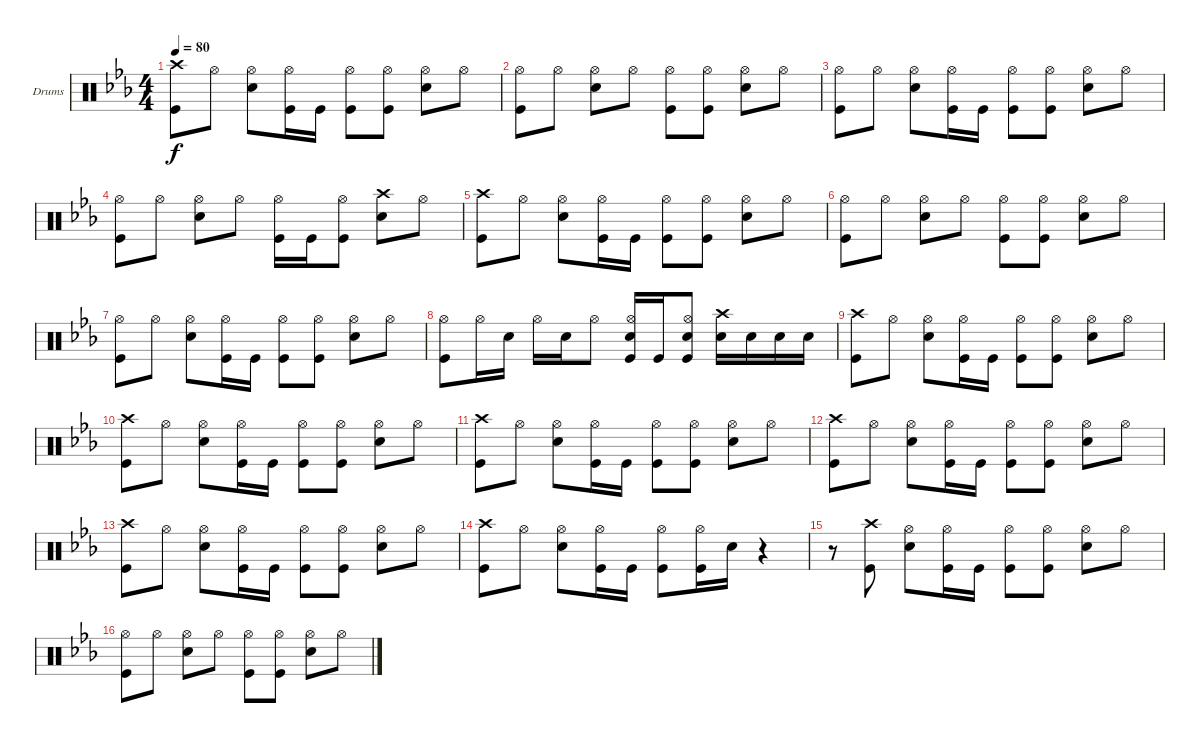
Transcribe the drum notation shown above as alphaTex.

\defaultSystemsLayout 4
\bracketExtendMode groupsimilarinstruments
\firstSystemTrackNameOrientation horizontal
\otherSystemsTrackNameOrientation horizontal
\track ("Drumkit" "Drums") {instrument percussion}
\staff {score}
\articulation defaults
\ts (4 4)
\tempo 80
\clef neutral
\ks cminor
("Crash high (hit)" "Kick (hit)").8{dy f} "Hi-Hat (open)".8 ("Hi-Hat (open)" "Snare (hit) 2").8 ("Hi-Hat (open)" "Kick (hit)").16 "Kick (hit)".16 ("Hi-Hat (open)" "Kick (hit)").8 ("Hi-Hat (open)" "Kick (hit)").8 ("Hi-Hat (open)" "Snare (hit) 2").8 "Hi-Hat (open)".8 |
("Kick (hit)" "Hi-Hat (open)").8 "Hi-Hat (open)".8 ("Hi-Hat (open)" "Snare (hit) 2").8 "Hi-Hat (open)".8 ("Hi-Hat (open)" "Kick (hit)").8 ("Hi-Hat (open)" "Kick (hit)").8 ("Hi-Hat (open)" "Snare (hit) 2").8 "Hi-Hat (open)".8 |
("Kick (hit)" "Hi-Hat (open)").8 "Hi-Hat (open)".8 ("Hi-Hat (open)" "Snare (hit) 2").8 ("Hi-Hat (open)" "Kick (hit)").16 "Kick (hit)".16 ("Hi-Hat (open)" "Kick (hit)").8 ("Hi-Hat (open)" "Kick (hit)").8 ("Hi-Hat (open)" "Snare (hit) 2").8 "Hi-Hat (open)".8 |
("Kick (hit)" "Hi-Hat (open)").8 "Hi-Hat (open)".8 ("Hi-Hat (open)" "Snare (hit) 2").8 "Hi-Hat (open)".8 ("Kick (hit)" "Hi-Hat (open)").16 "Kick (hit)".16 ("Hi-Hat (open)" "Kick (hit)").8 ("Snare (hit) 2" "Crash high (hit)").8 "Hi-Hat (open)".8 |
("Crash high (hit)" "Kick (hit)").8 "Hi-Hat (open)".8 ("Hi-Hat (open)" "Snare (hit) 2").8 ("Hi-Hat (open)" "Kick (hit)").16 "Kick (hit)".16 ("Hi-Hat (open)" "Kick (hit)").8 ("Hi-Hat (open)" "Kick (hit)").8 ("Hi-Hat (open)" "Snare (hit) 2").8 "Hi-Hat (open)".8 |
("Kick (hit)" "Hi-Hat (open)").8 "Hi-Hat (open)".8 ("Hi-Hat (open)" "Snare (hit) 2").8 "Hi-Hat (open)".8 ("Hi-Hat (open)" "Kick (hit)").8 ("Hi-Hat (open)" "Kick (hit)").8 ("Hi-Hat (open)" "Snare (hit) 2").8 "Hi-Hat (open)".8 |
("Kick (hit)" "Hi-Hat (open)").8 "Hi-Hat (open)".8 ("Hi-Hat (open)" "Snare (hit) 2").8 ("Hi-Hat (open)" "Kick (hit)").16 "Kick (hit)".16 ("Hi-Hat (open)" "Kick (hit)").8 ("Hi-Hat (open)" "Kick (hit)").8 ("Hi-Hat (open)" "Snare (hit) 2").8 "Hi-Hat (open)".8 |
("Kick (hit)" "Hi-Hat (open)").8 "Hi-Hat (open)".16 "Snare (hit) 2".16 "Hi-Hat (open)".16 "Snare (hit) 2".16 "Hi-Hat (open)".8 ("Kick (hit)" "Hi-Hat (open)" "Snare (hit) 2").16 "Kick (hit)".16 ("Hi-Hat (open)" "Kick (hit)" "Snare (hit) 2").8 ("Snare (hit) 2" "Crash high (hit)").16 "Snare (hit) 2".16 "Snare (hit) 2".16 "Snare (hit) 2".16 |
("Crash high (hit)" "Kick (hit)").8 "Hi-Hat (open)".8 ("Hi-Hat (open)" "Snare (hit) 2").8 ("Hi-Hat (open)" "Kick (hit)").16 "Kick (hit)".16 ("Hi-Hat (open)" "Kick (hit)").8 ("Hi-Hat (open)" "Kick (hit)").8 ("Hi-Hat (open)" "Snare (hit) 2").8 "Hi-Hat (open)".8 |
("Crash high (hit)" "Kick (hit)").8 "Hi-Hat (open)".8 ("Hi-Hat (open)" "Snare (hit) 2").8 ("Hi-Hat (open)" "Kick (hit)").16 "Kick (hit)".16 ("Hi-Hat (open)" "Kick (hit)").8 ("Hi-Hat (open)" "Kick (hit)").8 ("Hi-Hat (open)" "Snare (hit) 2").8 "Hi-Hat (open)".8 |
("Crash high (hit)" "Kick (hit)").8 "Hi-Hat (open)".8 ("Hi-Hat (open)" "Snare (hit) 2").8 ("Hi-Hat (open)" "Kick (hit)").16 "Kick (hit)".16 ("Hi-Hat (open)" "Kick (hit)").8 ("Hi-Hat (open)" "Kick (hit)").8 ("Hi-Hat (open)" "Snare (hit) 2").8 "Hi-Hat (open)".8 |
("Crash high (hit)" "Kick (hit)").8 "Hi-Hat (open)".8 ("Hi-Hat (open)" "Snare (hit) 2").8 ("Hi-Hat (open)" "Kick (hit)").16 "Kick (hit)".16 ("Hi-Hat (open)" "Kick (hit)").8 ("Hi-Hat (open)" "Kick (hit)").8 ("Hi-Hat (open)" "Snare (hit) 2").8 "Hi-Hat (open)".8 |
("Crash high (hit)" "Kick (hit)").8 "Hi-Hat (open)".8 ("Hi-Hat (open)" "Snare (hit) 2").8 ("Hi-Hat (open)" "Kick (hit)").16 "Kick (hit)".16 ("Hi-Hat (open)" "Kick (hit)").8 ("Hi-Hat (open)" "Kick (hit)").8 ("Hi-Hat (open)" "Snare (hit) 2").8 "Hi-Hat (open)".8 |
("Crash high (hit)" "Kick (hit)").8 "Hi-Hat (open)".8 ("Hi-Hat (open)" "Snare (hit) 2").8 ("Hi-Hat (open)" "Kick (hit)").16 "Kick (hit)".16 ("Hi-Hat (open)" "Kick (hit)").8 ("Hi-Hat (open)" "Kick (hit)").16 "Snare (hit) 2".16 r.4 |
r.8 ("Crash high (hit)" "Kick (hit)").8 ("Hi-Hat (open)" "Snare (hit) 2").8 ("Hi-Hat (open)" "Kick (hit)").16 "Kick (hit)".16 ("Hi-Hat (open)" "Kick (hit)").8 ("Hi-Hat (open)" "Kick (hit)").8 ("Hi-Hat (open)" "Snare (hit) 2").8 "Hi-Hat (open)".8 |
("Kick (hit)" "Hi-Hat (open)").8 "Hi-Hat (open)".8 ("Hi-Hat (open)" "Snare (hit) 2").8 "Hi-Hat (open)".8 ("Hi-Hat (open)" "Kick (hit)").8 ("Hi-Hat (open)" "Kick (hit)").8 ("Hi-Hat (open)" "Snare (hit) 2").8 "Hi-Hat (open)".8
